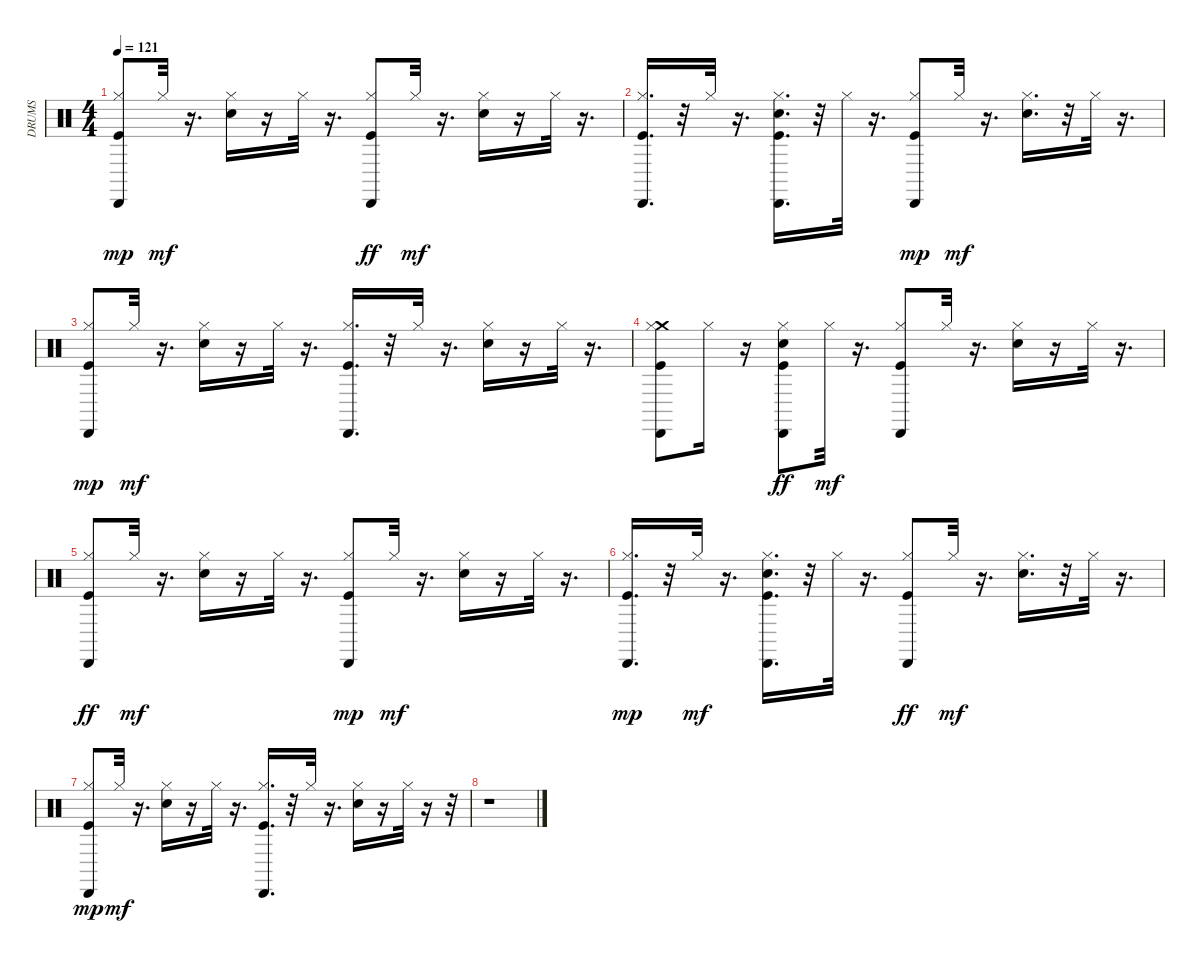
\track ("DRUMS" "DRUMS") {instrument percussion}
\staff {score}
\articulation defaults
\ts (4 4)
\tempo 121
\clef neutral
\ks c
("Hi-Hat (closed)" "Kick (hit)" "Cabasa (hit)").8{dy mp} "Hi-Hat (closed)".32{dy mf} r.16{d} ("Electric Snare (hit)" "Hi-Hat (closed)").16 r.16 "Hi-Hat (closed)".32 r.16{d} ("Hi-Hat (closed)" "Cabasa (hit)" "Kick (hit)").8{dy ff} "Hi-Hat (closed)".32{dy mf} r.16{d} ("Hi-Hat (closed)" "Electric Snare (hit)").16 r.16 "Hi-Hat (closed)".32 r.16{d} |
("Kick (hit)" "Cabasa (hit)" "Hi-Hat (closed)").16{d} r.32 "Hi-Hat (closed)".32 r.16{d} ("Kick (hit)" "Cabasa (hit)" "Electric Snare (hit)" "Hi-Hat (closed)").16{d} r.32 "Hi-Hat (closed)".32 r.16{d} ("Kick (hit)" "Hi-Hat (closed)" "Cabasa (hit)").8{dy mp} "Hi-Hat (closed)".32{dy mf} r.16{d} ("Hi-Hat (closed)" "Electric Snare (hit)").16{d} r.32 "Hi-Hat (closed)".32 r.16{d} |
("Hi-Hat (closed)" "Kick (hit)" "Cabasa (hit)").8{dy mp} "Hi-Hat (closed)".32{dy mf} r.16{d} ("Hi-Hat (closed)" "Electric Snare (hit)").16 r.16 "Hi-Hat (closed)".32 r.16{d} ("Cabasa (hit)" "Kick (hit)" "Hi-Hat (closed)").16{d} r.32 "Hi-Hat (closed)".32 r.16{d} ("Electric Snare (hit)" "Hi-Hat (closed)").16 r.16 "Hi-Hat (closed)".32 r.16{d} |
("Kick (hit)" "Crash medium (hit)" "Cabasa (hit)" "Hi-Hat (closed)").8 "Hi-Hat (closed)".16 r.16 ("Hi-Hat (closed)" "Cabasa (hit)" "Electric Snare (hit)" "Kick (hit)").8{dy ff} "Hi-Hat (closed)".32{dy mf} r.16{d} ("Kick (hit)" "Cabasa (hit)" "Hi-Hat (closed)").8 "Hi-Hat (closed)".32 r.16{d} ("Electric Snare (hit)" "Hi-Hat (closed)").16 r.16 "Hi-Hat (closed)".32 r.16{d} |
("Hi-Hat (closed)" "Cabasa (hit)" "Kick (hit)").8{dy ff} "Hi-Hat (closed)".32{dy mf} r.16{d} ("Hi-Hat (closed)" "Electric Snare (hit)").16 r.16 "Hi-Hat (closed)".32 r.16{d} ("Kick (hit)" "Hi-Hat (closed)" "Cabasa (hit)").8{dy mp} "Hi-Hat (closed)".32{dy mf} r.16{d} ("Electric Snare (hit)" "Hi-Hat (closed)").16 r.16 "Hi-Hat (closed)".32 r.16{d} |
("Hi-Hat (closed)" "Kick (hit)" "Cabasa (hit)").16{d dy mp} r.32 "Hi-Hat (closed)".32{dy mf} r.16{d} ("Cabasa (hit)" "Electric Snare (hit)" "Kick (hit)" "Hi-Hat (closed)").16{d} r.32 "Hi-Hat (closed)".32 r.16{d} ("Cabasa (hit)" "Hi-Hat (closed)" "Kick (hit)").8{dy ff} "Hi-Hat (closed)".32{dy mf} r.16{d} ("Electric Snare (hit)" "Hi-Hat (closed)").16{d} r.32 "Hi-Hat (closed)".32 r.16{d} |
("Kick (hit)" "Hi-Hat (closed)" "Cabasa (hit)").8{dy mp} "Hi-Hat (closed)".32{dy mf} r.16{d} ("Hi-Hat (closed)" "Electric Snare (hit)").16 r.16 "Hi-Hat (closed)".32 r.16{d} ("Cabasa (hit)" "Kick (hit)" "Hi-Hat (closed)").16{d} r.32 "Hi-Hat (closed)".32 r.16{d} ("Electric Snare (hit)" "Hi-Hat (closed)").16 r.16 "Hi-Hat (closed)".32 r.16 r.32 |
r.1
